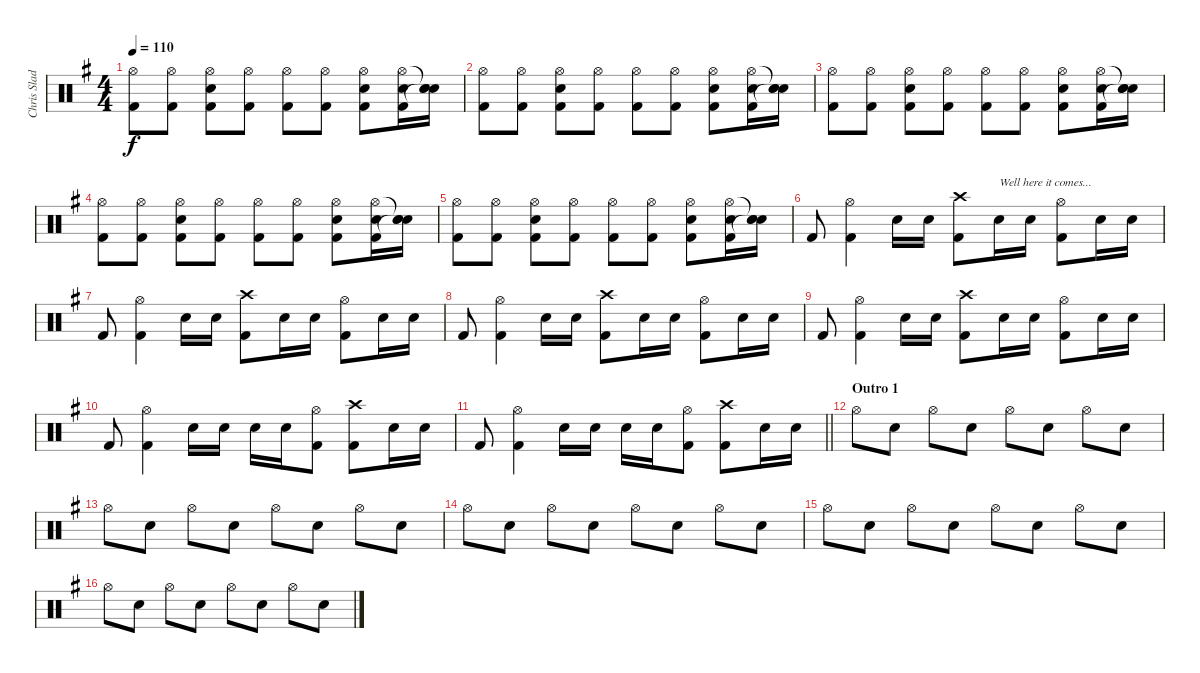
\track ("Chris Slade (Percussion)" "Chris Slad") {instrument percussion}
\staff {score}
\articulation defaults
\ts (4 4)
\tempo 110
\clef neutral
\ks g
("Hi-Hat (open)" "Kick (hit) 2").8{dy f} ("Hi-Hat (open)" "Kick (hit) 2").8 ("Hi-Hat (open)" "Snare (hit) 2" "Kick (hit) 2").8 ("Hi-Hat (open)" "Kick (hit) 2").8 ("Hi-Hat (open)" "Kick (hit) 2").8 ("Hi-Hat (open)" "Kick (hit) 2").8 ("Hi-Hat (open)" "Snare (hit) 2" "Kick (hit) 2").8 ("Hi-Hat (open)" "Snare (hit) 2" "Kick (hit) 2").16 ("Snare (hit)"{t} "Snare (hit) 2" "Snare (hit)"{t}).16 |
("Hi-Hat (open)" "Kick (hit) 2").8 ("Hi-Hat (open)" "Kick (hit) 2").8 ("Hi-Hat (open)" "Snare (hit) 2" "Kick (hit) 2").8 ("Hi-Hat (open)" "Kick (hit) 2").8 ("Hi-Hat (open)" "Kick (hit) 2").8 ("Hi-Hat (open)" "Kick (hit) 2").8 ("Hi-Hat (open)" "Snare (hit) 2" "Kick (hit) 2").8 ("Hi-Hat (open)" "Snare (hit) 2" "Kick (hit) 2").16 ("Snare (hit)"{t} "Snare (hit) 2" "Snare (hit)"{t}).16 |
("Hi-Hat (open)" "Kick (hit) 2").8 ("Hi-Hat (open)" "Kick (hit) 2").8 ("Hi-Hat (open)" "Snare (hit) 2" "Kick (hit) 2").8 ("Hi-Hat (open)" "Kick (hit) 2").8 ("Hi-Hat (open)" "Kick (hit) 2").8 ("Hi-Hat (open)" "Kick (hit) 2").8 ("Hi-Hat (open)" "Snare (hit) 2" "Kick (hit) 2").8 ("Hi-Hat (open)" "Snare (hit) 2" "Kick (hit) 2").16 ("Snare (hit)"{t} "Snare (hit) 2" "Snare (hit)"{t}).16 |
("Hi-Hat (open)" "Kick (hit) 2").8 ("Hi-Hat (open)" "Kick (hit) 2").8 ("Hi-Hat (open)" "Snare (hit) 2" "Kick (hit) 2").8 ("Hi-Hat (open)" "Kick (hit) 2").8 ("Hi-Hat (open)" "Kick (hit) 2").8 ("Hi-Hat (open)" "Kick (hit) 2").8 ("Hi-Hat (open)" "Snare (hit) 2" "Kick (hit) 2").8 ("Hi-Hat (open)" "Snare (hit) 2" "Kick (hit) 2").16 ("Snare (hit)"{t} "Snare (hit) 2" "Snare (hit)"{t}).16 |
("Hi-Hat (open)" "Kick (hit) 2").8 ("Hi-Hat (open)" "Kick (hit) 2").8 ("Hi-Hat (open)" "Snare (hit) 2" "Kick (hit) 2").8 ("Hi-Hat (open)" "Kick (hit) 2").8 ("Hi-Hat (open)" "Kick (hit) 2").8 ("Hi-Hat (open)" "Kick (hit) 2").8 ("Hi-Hat (open)" "Snare (hit) 2" "Kick (hit) 2").8 ("Hi-Hat (open)" "Snare (hit) 2" "Kick (hit) 2").16 ("Snare (hit)"{t} "Snare (hit) 2" "Snare (hit)"{t}).16 |
"Kick (hit) 2".8 ("Hi-Hat (open)" "Kick (hit) 2").4 "Snare (hit) 2".16 "Snare (hit) 2".16 ("Crash high (hit)" "Kick (hit) 2").8 "Snare (hit) 2".16{txt "Well here it comes..."} "Snare (hit) 2".16 ("Hi-Hat (open)" "Kick (hit) 2").8 "Snare (hit) 2".16 "Snare (hit) 2".16 |
"Kick (hit) 2".8 ("Hi-Hat (open)" "Kick (hit) 2").4 "Snare (hit) 2".16 "Snare (hit) 2".16 ("Crash high (hit)" "Kick (hit) 2").8 "Snare (hit) 2".16 "Snare (hit) 2".16 ("Hi-Hat (open)" "Kick (hit) 2").8 "Snare (hit) 2".16 "Snare (hit) 2".16 |
"Kick (hit) 2".8 ("Hi-Hat (open)" "Kick (hit) 2").4 "Snare (hit) 2".16 "Snare (hit) 2".16 ("Crash high (hit)" "Kick (hit) 2").8 "Snare (hit) 2".16 "Snare (hit) 2".16 ("Hi-Hat (open)" "Kick (hit) 2").8 "Snare (hit) 2".16 "Snare (hit) 2".16 |
"Kick (hit) 2".8 ("Hi-Hat (open)" "Kick (hit) 2").4 "Snare (hit) 2".16 "Snare (hit) 2".16 ("Crash high (hit)" "Kick (hit) 2").8 "Snare (hit) 2".16 "Snare (hit) 2".16 ("Hi-Hat (open)" "Kick (hit) 2").8 "Snare (hit) 2".16 "Snare (hit) 2".16 |
"Kick (hit) 2".8 ("Hi-Hat (open)" "Kick (hit) 2").4 "Snare (hit) 2".16 "Snare (hit) 2".16 "Snare (hit) 2".16 "Snare (hit) 2".16 ("Hi-Hat (open)" "Kick (hit) 2").8 ("Crash high (hit)" "Kick (hit) 2").8 "Snare (hit) 2".16 "Snare (hit) 2".16 |
\barLineRight lightlight "Kick (hit) 2".8
("Hi-Hat (open)" "Kick (hit) 2").4 "Snare (hit) 2".16 "Snare (hit) 2".16 "Snare (hit) 2".16 "Snare (hit) 2".16 ("Hi-Hat (open)" "Kick (hit) 2").8 ("Crash high (hit)" "Kick (hit) 2").8 "Snare (hit) 2".16 "Snare (hit) 2".16 |
\section ("" "Outro 1")
"Hi-Hat (open)".8 "Snare (hit) 2".8 "Hi-Hat (open)".8 "Snare (hit) 2".8 "Hi-Hat (open)".8 "Snare (hit) 2".8 "Hi-Hat (open)".8 "Snare (hit) 2".8 |
"Hi-Hat (open)".8 "Snare (hit) 2".8 "Hi-Hat (open)".8 "Snare (hit) 2".8 "Hi-Hat (open)".8 "Snare (hit) 2".8 "Hi-Hat (open)".8 "Snare (hit) 2".8 |
"Hi-Hat (open)".8 "Snare (hit) 2".8 "Hi-Hat (open)".8 "Snare (hit) 2".8 "Hi-Hat (open)".8 "Snare (hit) 2".8 "Hi-Hat (open)".8 "Snare (hit) 2".8 |
"Hi-Hat (open)".8 "Snare (hit) 2".8 "Hi-Hat (open)".8 "Snare (hit) 2".8 "Hi-Hat (open)".8 "Snare (hit) 2".8 "Hi-Hat (open)".8 "Snare (hit) 2".8 |
"Hi-Hat (open)".8 "Snare (hit) 2".8 "Hi-Hat (open)".8 "Snare (hit) 2".8 "Hi-Hat (open)".8 "Snare (hit) 2".8 "Hi-Hat (open)".8 "Snare (hit) 2".8
